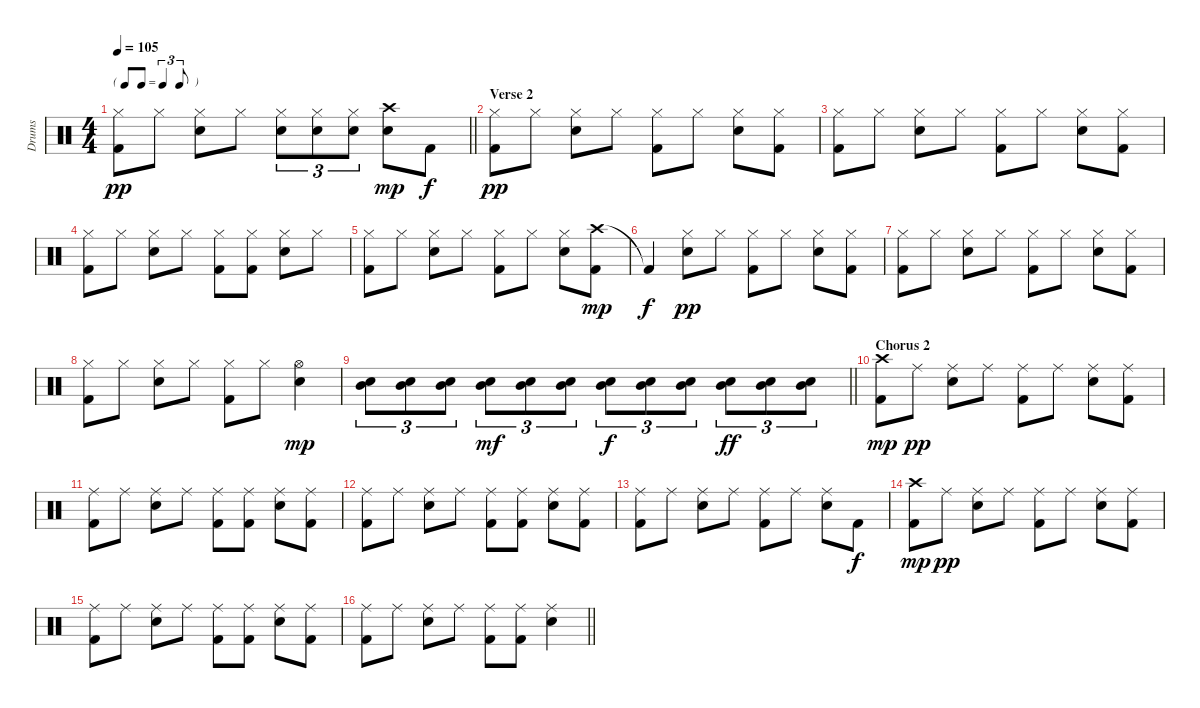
\track ("Drums" "Drums") {instrument percussion}
\staff {score}
\articulation defaults
\ts (4 4)
\tf triplet8th
\tempo 105
\clef neutral
\barLineRight lightlight
\ks c
("Hi-Hat (closed)" "Kick (hit) 2").8{dy pp} "Hi-Hat (closed)".8 ("Hi-Hat (closed)" "Electric Snare (hit)").8 "Hi-Hat (closed)".8 ("Electric Snare (hit)" "Hi-Hat (closed)").8{tu (3 2)} ("Electric Snare (hit)" "Hi-Hat (closed)").8{tu (3 2)} ("Electric Snare (hit)" "Hi-Hat (closed)").8{tu (3 2)} ("Electric Snare (hit)" "Crash high (hit)").8{dy mp} "Kick (hit) 2".8{dy f} |
\section ("" "Verse 2")
("Hi-Hat (closed)" "Kick (hit) 2").8{dy pp} "Hi-Hat (closed)".8 ("Hi-Hat (closed)" "Electric Snare (hit)").8 "Hi-Hat (closed)".8 ("Hi-Hat (closed)" "Kick (hit) 2").8 "Hi-Hat (closed)".8 ("Hi-Hat (closed)" "Electric Snare (hit)").8 ("Hi-Hat (closed)" "Kick (hit) 2").8 |
("Hi-Hat (closed)" "Kick (hit) 2").8 "Hi-Hat (closed)".8 ("Hi-Hat (closed)" "Electric Snare (hit)").8 "Hi-Hat (closed)".8 ("Hi-Hat (closed)" "Kick (hit) 2").8 "Hi-Hat (closed)".8 ("Hi-Hat (closed)" "Electric Snare (hit)").8 ("Hi-Hat (closed)" "Kick (hit) 2").8 |
("Hi-Hat (closed)" "Kick (hit) 2").8 "Hi-Hat (closed)".8 ("Hi-Hat (closed)" "Electric Snare (hit)").8 "Hi-Hat (closed)".8 ("Hi-Hat (closed)" "Kick (hit) 2").8 ("Hi-Hat (closed)" "Kick (hit) 2").8 ("Hi-Hat (closed)" "Electric Snare (hit)").8 "Hi-Hat (closed)".8 |
("Hi-Hat (closed)" "Kick (hit) 2").8 "Hi-Hat (closed)".8 ("Hi-Hat (closed)" "Electric Snare (hit)").8 "Hi-Hat (closed)".8 ("Hi-Hat (closed)" "Kick (hit) 2").8 "Hi-Hat (closed)".8 ("Hi-Hat (closed)" "Electric Snare (hit)").8 ("Crash high (hit)" "Kick (hit) 2").8{dy mp} |
"Kick (hit) 2"{t}.4{dy f} ("Hi-Hat (closed)" "Electric Snare (hit)").8{dy pp} "Hi-Hat (closed)".8 ("Hi-Hat (closed)" "Kick (hit) 2").8 "Hi-Hat (closed)".8 ("Hi-Hat (closed)" "Electric Snare (hit)").8 ("Hi-Hat (closed)" "Kick (hit) 2").8 |
("Hi-Hat (closed)" "Kick (hit) 2").8 "Hi-Hat (closed)".8 ("Hi-Hat (closed)" "Electric Snare (hit)").8 "Hi-Hat (closed)".8 ("Hi-Hat (closed)" "Kick (hit) 2").8 "Hi-Hat (closed)".8 ("Hi-Hat (closed)" "Electric Snare (hit)").8 ("Hi-Hat (closed)" "Kick (hit) 2").8 |
("Hi-Hat (closed)" "Kick (hit) 2").8 "Hi-Hat (closed)".8 ("Hi-Hat (closed)" "Electric Snare (hit)").8 "Hi-Hat (closed)".8 ("Hi-Hat (closed)" "Kick (hit) 2").8 "Hi-Hat (closed)".8 ("Hi-Hat (open)" "Electric Snare (hit)").4{dy mp} |
\barLineRight lightlight
("Electric Snare (hit)" "Mid Tom (hit)").8{tu (3 2)} ("Electric Snare (hit)" "Mid Tom (hit)").8{tu (3 2)} ("Electric Snare (hit)" "Mid Tom (hit)").8{tu (3 2)} ("Electric Snare (hit)" "Mid Tom (hit)").8{tu (3 2) dy mf} ("Electric Snare (hit)" "Mid Tom (hit)").8{tu (3 2)} ("Electric Snare (hit)" "Mid Tom (hit)").8{tu (3 2)} ("Electric Snare (hit)" "Mid Tom (hit)").8{tu (3 2) dy f} ("Electric Snare (hit)" "Mid Tom (hit)").8{tu (3 2)} ("Electric Snare (hit)" "Mid Tom (hit)").8{tu (3 2)} ("Electric Snare (hit)" "Mid Tom (hit)").8{tu (3 2) dy ff} ("Electric Snare (hit)" "Mid Tom (hit)").8{tu (3 2)} ("Electric Snare (hit)" "Mid Tom (hit)").8{tu (3 2)} |
\section ("" "Chorus 2")
("Crash high (hit)" "Kick (hit) 2").8{dy mp} "Ride (middle)".8{dy pp} ("Ride (middle)" "Electric Snare (hit)").8 "Ride (middle)".8 ("Ride (middle)" "Kick (hit) 2").8 "Ride (middle)".8 ("Ride (middle)" "Electric Snare (hit)").8 ("Ride (middle)" "Kick (hit) 2").8 |
("Ride (middle)" "Kick (hit) 2").8 "Ride (middle)".8 ("Ride (middle)" "Electric Snare (hit)").8 "Ride (middle)".8 ("Ride (middle)" "Kick (hit) 2").8 ("Ride (middle)" "Kick (hit) 2").8 ("Ride (middle)" "Electric Snare (hit)").8 ("Ride (middle)" "Kick (hit) 2").8 |
("Ride (middle)" "Kick (hit) 2").8 "Ride (middle)".8 ("Ride (middle)" "Electric Snare (hit)").8 "Ride (middle)".8 ("Ride (middle)" "Kick (hit) 2").8 ("Ride (middle)" "Kick (hit) 2").8 ("Ride (middle)" "Electric Snare (hit)").8 ("Ride (middle)" "Kick (hit) 2").8 |
("Ride (middle)" "Kick (hit) 2").8 "Ride (middle)".8 ("Ride (middle)" "Electric Snare (hit)").8 "Ride (middle)".8 ("Ride (middle)" "Kick (hit) 2").8 "Ride (middle)".8 ("Ride (middle)" "Electric Snare (hit)").8 "Kick (hit) 2".8{dy f} |
("Crash high (hit)" "Kick (hit) 2").8{dy mp} "Ride (middle)".8{dy pp} ("Ride (middle)" "Electric Snare (hit)").8 "Ride (middle)".8 ("Ride (middle)" "Kick (hit) 2").8 "Ride (middle)".8 ("Ride (middle)" "Electric Snare (hit)").8 ("Ride (middle)" "Kick (hit) 2").8 |
("Ride (middle)" "Kick (hit) 2").8 "Ride (middle)".8 ("Ride (middle)" "Electric Snare (hit)").8 "Ride (middle)".8 ("Ride (middle)" "Kick (hit) 2").8 ("Ride (middle)" "Kick (hit) 2").8 ("Ride (middle)" "Electric Snare (hit)").8 ("Ride (middle)" "Kick (hit) 2").8 |
\barLineRight lightlight
("Ride (middle)" "Kick (hit) 2").8 "Ride (middle)".8 ("Ride (middle)" "Electric Snare (hit)").8 "Ride (middle)".8 ("Ride (middle)" "Kick (hit) 2").8 ("Ride (middle)" "Kick (hit) 2").8 ("Ride (middle)" "Electric Snare (hit)").4
